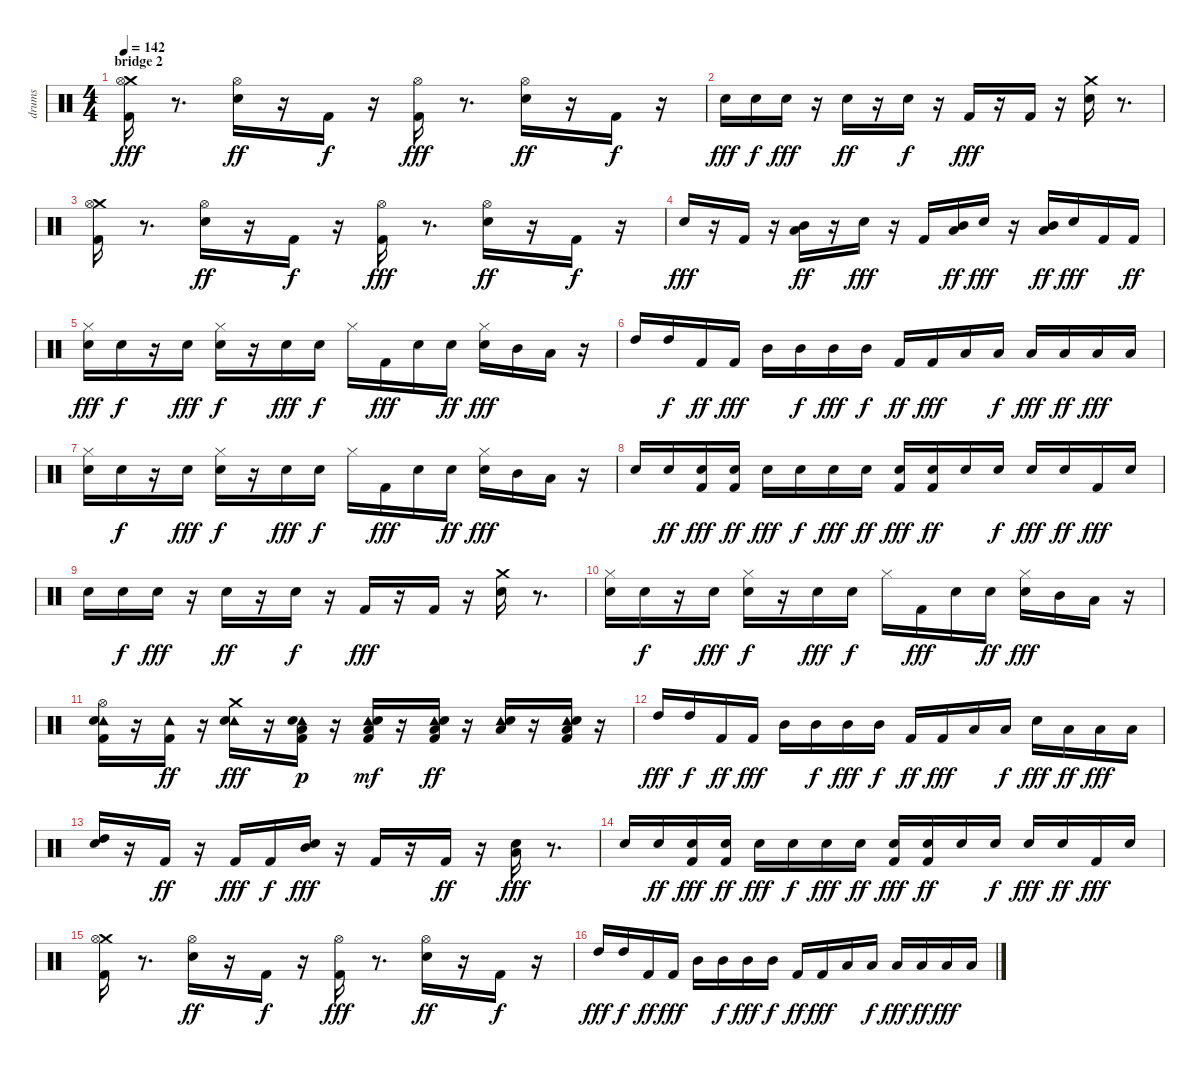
\track ("drums" "drums") {instrument percussion}
\staff {score}
\articulation defaults
\ts (4 4)
\section ("" "bridge 2")
\tempo 142
\clef neutral
\ks c
("Crash medium (hit)" "Hi-Hat (open)" "Kick (hit) 2").16{dy fff} r.8{d} ("Hi-Hat (open)" "Snare (hit) 2").16{dy ff} r.16 "Kick (hit) 2".16{dy f} r.16 ("Hi-Hat (open)" "Kick (hit) 2").16{dy fff} r.8{d} ("Hi-Hat (open)" "Snare (hit) 2").16{dy ff} r.16 "Kick (hit) 2".16{dy f} r.16 |
"Snare (hit) 2".16{dy fff} "Snare (hit) 2".16{dy f} "Snare (hit) 2".16{dy fff} r.16 "Snare (hit) 2".16{dy ff} r.16 "Snare (hit) 2".16{dy f} r.16 "Kick (hit) 2".16{dy fff} r.16 "Kick (hit) 2".16 r.16 ("Crash medium (hit)" "Snare (hit) 2").16 r.8{d} |
("Crash medium (hit)" "Hi-Hat (open)" "Kick (hit) 2").16 r.8{d} ("Hi-Hat (open)" "Snare (hit) 2").16{dy ff} r.16 "Kick (hit) 2".16{dy f} r.16 ("Hi-Hat (open)" "Kick (hit) 2").16{dy fff} r.8{d} ("Hi-Hat (open)" "Snare (hit) 2").16{dy ff} r.16 "Kick (hit) 2".16{dy f} r.16 |
"Snare (hit) 2".16{dy fff} r.16 "Kick (hit) 2".16 r.16 ("Mid Tom (hit)" "Low Floor Tom (hit)").16{dy ff} r.16 "Snare (hit) 2".16{dy fff} r.16 "Kick (hit) 2".16 ("Mid Tom (hit)" "Low Floor Tom (hit)").16{dy ff} "Snare (hit) 2".16{dy fff} r.16 ("Mid Tom (hit)" "Low Floor Tom (hit)").16{dy ff} "Snare (hit) 2".16{dy fff} "Kick (hit) 2".16 "Kick (hit) 2".16{dy ff} |
("Hi-Hat (closed)" "Snare (hit) 2").16{dy fff} "Snare (hit) 2".16{dy f} r.16 "Snare (hit) 2".16{dy fff} ("Hi-Hat (closed)" "Snare (hit) 2").16{dy f} r.16 "Snare (hit) 2".16{dy fff} "Snare (hit) 2".16{dy f} "Hi-Hat (closed)".16 "Kick (hit) 2".16{dy fff} "Snare (hit) 2".16 "Snare (hit) 2".16{dy ff} ("Hi-Hat (closed)" "Snare (hit) 2").16{dy fff} "Mid Tom (hit)".16 "Low Floor Tom (hit)".16 r.16 |
"High Tom (hit)".16 "High Tom (hit)".16{dy f} "Kick (hit) 2".16{dy ff} "Kick (hit) 2".16{dy fff} "Mid Tom (hit)".16 "Mid Tom (hit)".16{dy f} "Mid Tom (hit)".16{dy fff} "Mid Tom (hit)".16{dy f} "Kick (hit) 2".16{dy ff} "Kick (hit) 2".16{dy fff} "Low Floor Tom (hit)".16 "Low Floor Tom (hit)".16{dy f} "Low Floor Tom (hit)".16{dy fff} "Low Floor Tom (hit)".16{dy ff} "Low Floor Tom (hit)".16{dy fff} "Low Floor Tom (hit)".16 |
("Hi-Hat (closed)" "Snare (hit) 2").16 "Snare (hit) 2".16{dy f} r.16 "Snare (hit) 2".16{dy fff} ("Hi-Hat (closed)" "Snare (hit) 2").16{dy f} r.16 "Snare (hit) 2".16{dy fff} "Snare (hit) 2".16{dy f} "Hi-Hat (closed)".16 "Kick (hit) 2".16{dy fff} "Snare (hit) 2".16 "Snare (hit) 2".16{dy ff} ("Hi-Hat (closed)" "Snare (hit) 2").16{dy fff} "Mid Tom (hit)".16 "Low Floor Tom (hit)".16 r.16 |
"Snare (hit) 2".16 "Snare (hit) 2".16{dy ff} ("Snare (hit) 2" "Kick (hit) 2").16{dy fff} ("Snare (hit) 2" "Kick (hit) 2").16{dy ff} "Snare (hit) 2".16{dy fff} "Snare (hit) 2".16{dy f} "Snare (hit) 2".16{dy fff} "Snare (hit) 2".16{dy ff} ("Snare (hit) 2" "Kick (hit) 2").16{dy fff} ("Snare (hit) 2" "Kick (hit) 2").16{dy ff} "Snare (hit) 2".16 "Snare (hit) 2".16{dy f} "Snare (hit) 2".16{dy fff} "Snare (hit) 2".16{dy ff} "Kick (hit) 2".16{dy fff} "Snare (hit) 2".16 |
"Snare (hit) 2".16 "Snare (hit) 2".16{dy f} "Snare (hit) 2".16{dy fff} r.16 "Snare (hit) 2".16{dy ff} r.16 "Snare (hit) 2".16{dy f} r.16 "Kick (hit) 2".16{dy fff} r.16 "Kick (hit) 2".16 r.16 ("Crash medium (hit)" "Snare (hit) 2").16 r.8{d} |
("Hi-Hat (closed)" "Snare (hit) 2").16 "Snare (hit) 2".16{dy f} r.16 "Snare (hit) 2".16{dy fff} ("Hi-Hat (closed)" "Snare (hit) 2").16{dy f} r.16 "Snare (hit) 2".16{dy fff} "Snare (hit) 2".16{dy f} "Hi-Hat (closed)".16 "Kick (hit) 2".16{dy fff} "Snare (hit) 2".16 "Snare (hit) 2".16{dy ff} ("Hi-Hat (closed)" "Snare (hit) 2").16{dy fff} "Mid Tom (hit)".16 "Low Floor Tom (hit)".16 r.16 |
("Tambourine (hit)" "Hi-Hat (open)" "Snare (hit) 2" "Kick (hit) 2").16 r.16 ("Tambourine (hit)" "Kick (hit) 2").16{dy ff} r.16 ("Tambourine (hit)" "Crash medium (hit)" "Snare (hit) 2").16{dy fff} r.16 ("Tambourine (hit)" "Low Floor Tom (hit)" "Snare (hit) 2" "Kick (hit) 2").16{dy p} r.16 ("Tambourine (hit)" "Low Floor Tom (hit)" "Snare (hit) 2" "Kick (hit) 2").16{dy mf} r.16 ("Tambourine (hit)" "Low Floor Tom (hit)" "Snare (hit) 2" "Kick (hit) 2").16{dy ff} r.16 ("Tambourine (hit)" "Low Floor Tom (hit)" "Snare (hit) 2").16 r.16 ("Tambourine (hit)" "Low Floor Tom (hit)" "Snare (hit) 2" "Kick (hit) 2").16 r.16 |
"High Tom (hit)".16{dy fff} "High Tom (hit)".16{dy f} "Kick (hit) 2".16{dy ff} "Kick (hit) 2".16{dy fff} "Mid Tom (hit)".16 "Mid Tom (hit)".16{dy f} "Mid Tom (hit)".16{dy fff} "Mid Tom (hit)".16{dy f} "Kick (hit) 2".16{dy ff} "Kick (hit) 2".16{dy fff} "Low Floor Tom (hit)".16 "Low Floor Tom (hit)".16{dy f} "Snare (hit) 2".16{dy fff} "Low Floor Tom (hit)".16{dy ff} "Low Floor Tom (hit)".16{dy fff} "Low Floor Tom (hit)".16 |
("High Tom (hit)" "Snare (hit) 2").16 r.16 "Kick (hit) 2".16{dy ff} r.16 "Kick (hit) 2".16{dy fff} "Kick (hit) 2".16{dy f} ("Mid Tom (hit)" "Snare (hit) 2").16{dy fff} r.16 "Kick (hit) 2".16 r.16 "Kick (hit) 2".16{dy ff} r.16 ("Low Floor Tom (hit)" "Snare (hit) 2").16{dy fff} r.8{d} |
"Snare (hit) 2".16 "Snare (hit) 2".16{dy ff} ("Snare (hit) 2" "Kick (hit) 2").16{dy fff} ("Snare (hit) 2" "Kick (hit) 2").16{dy ff} "Snare (hit) 2".16{dy fff} "Snare (hit) 2".16{dy f} "Snare (hit) 2".16{dy fff} "Snare (hit) 2".16{dy ff} ("Snare (hit) 2" "Kick (hit) 2").16{dy fff} ("Snare (hit) 2" "Kick (hit) 2").16{dy ff} "Snare (hit) 2".16 "Snare (hit) 2".16{dy f} "Snare (hit) 2".16{dy fff} "Snare (hit) 2".16{dy ff} "Kick (hit) 2".16{dy fff} "Snare (hit) 2".16 |
("Crash medium (hit)" "Hi-Hat (open)" "Kick (hit) 2").16 r.8{d} ("Hi-Hat (open)" "Snare (hit) 2").16{dy ff} r.16 "Kick (hit) 2".16{dy f} r.16 ("Hi-Hat (open)" "Kick (hit) 2").16{dy fff} r.8{d} ("Hi-Hat (open)" "Snare (hit) 2").16{dy ff} r.16 "Kick (hit) 2".16{dy f} r.16 |
"High Tom (hit)".16{dy fff} "High Tom (hit)".16{dy f} "Kick (hit) 2".16{dy ff} "Kick (hit) 2".16{dy fff} "Mid Tom (hit)".16 "Mid Tom (hit)".16{dy f} "Mid Tom (hit)".16{dy fff} "Mid Tom (hit)".16{dy f} "Kick (hit) 2".16{dy ff} "Kick (hit) 2".16{dy fff} "Low Floor Tom (hit)".16 "Low Floor Tom (hit)".16{dy f} "Low Floor Tom (hit)".16{dy fff} "Low Floor Tom (hit)".16{dy ff} "Low Floor Tom (hit)".16{dy fff} "Low Floor Tom (hit)".16
